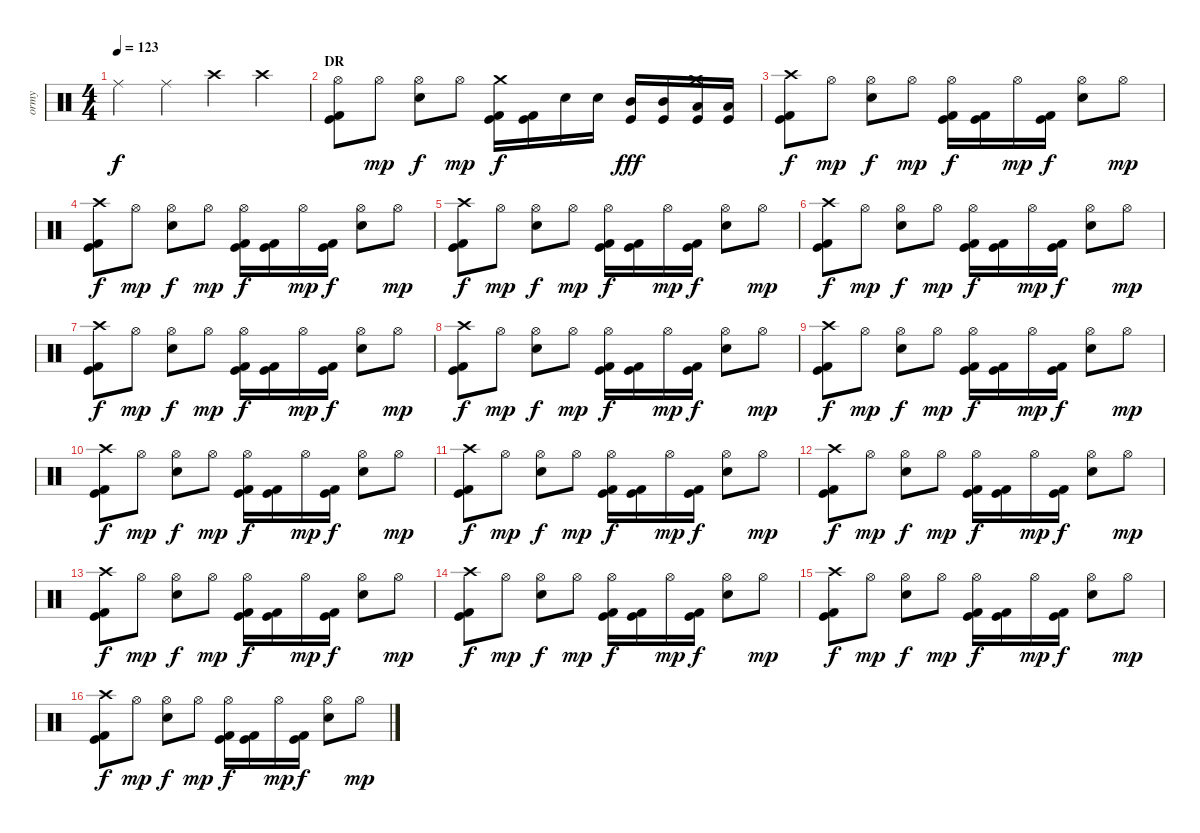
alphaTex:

\track ("ormy" "ormy") {instrument percussion}
\staff {score}
\articulation defaults
\ts (4 4)
\tempo 123
\clef neutral
\ks c "Ride (middle)".4{dy f} "Ride (middle)".4 "Crash high (hit)".4 "Crash high (hit)".4
|
\section ("" "DR")
("Hi-Hat (open)" "Kick (hit) 2" "Kick (hit)").8 "Hi-Hat (open)".8{dy mp} ("Hi-Hat (open)" "Snare (hit) 2").8{dy f} "Hi-Hat (open)".8{dy mp} ("Crash medium (hit)" "Kick (hit) 2" "Kick (hit)").16{dy f} ("Kick (hit) 2" "Kick (hit)").16 "Snare (hit) 2".16 "Snare (hit) 2".16 ("Mid Tom (hit)" "Kick (hit)").16{dy fff} ("Mid Tom (hit)" "Kick (hit)").16 ("Crash medium (hit)" "Low Tom (hit)" "Kick (hit)").16 ("Low Tom (hit)" "Kick (hit)").16 |
("Crash high (hit)" "Kick (hit) 2" "Kick (hit)").8{dy f} "Hi-Hat (open)".8{dy mp} ("Hi-Hat (open)" "Snare (hit) 2").8{dy f} "Hi-Hat (open)".8{dy mp} ("Hi-Hat (open)" "Kick (hit) 2" "Kick (hit)").16{dy f} ("Kick (hit) 2" "Kick (hit)").16 "Hi-Hat (open)".16{dy mp} ("Kick (hit) 2" "Kick (hit)").16{dy f} ("Hi-Hat (open)" "Snare (hit) 2").8 "Hi-Hat (open)".8{dy mp} |
("Crash high (hit)" "Kick (hit) 2" "Kick (hit)").8{dy f} "Hi-Hat (open)".8{dy mp} ("Hi-Hat (open)" "Snare (hit) 2").8{dy f} "Hi-Hat (open)".8{dy mp} ("Hi-Hat (open)" "Kick (hit) 2" "Kick (hit)").16{dy f} ("Kick (hit) 2" "Kick (hit)").16 "Hi-Hat (open)".16{dy mp} ("Kick (hit) 2" "Kick (hit)").16{dy f} ("Hi-Hat (open)" "Snare (hit) 2").8 "Hi-Hat (open)".8{dy mp} |
("Crash high (hit)" "Kick (hit) 2" "Kick (hit)").8{dy f} "Hi-Hat (open)".8{dy mp} ("Hi-Hat (open)" "Snare (hit) 2").8{dy f} "Hi-Hat (open)".8{dy mp} ("Hi-Hat (open)" "Kick (hit) 2" "Kick (hit)").16{dy f} ("Kick (hit) 2" "Kick (hit)").16 "Hi-Hat (open)".16{dy mp} ("Kick (hit) 2" "Kick (hit)").16{dy f} ("Hi-Hat (open)" "Snare (hit) 2").8 "Hi-Hat (open)".8{dy mp} |
("Crash high (hit)" "Kick (hit) 2" "Kick (hit)").8{dy f} "Hi-Hat (open)".8{dy mp} ("Hi-Hat (open)" "Snare (hit) 2").8{dy f} "Hi-Hat (open)".8{dy mp} ("Hi-Hat (open)" "Kick (hit) 2" "Kick (hit)").16{dy f} ("Kick (hit) 2" "Kick (hit)").16 "Hi-Hat (open)".16{dy mp} ("Kick (hit) 2" "Kick (hit)").16{dy f} ("Hi-Hat (open)" "Snare (hit) 2").8 "Hi-Hat (open)".8{dy mp} |
("Crash high (hit)" "Kick (hit) 2" "Kick (hit)").8{dy f} "Hi-Hat (open)".8{dy mp} ("Hi-Hat (open)" "Snare (hit) 2").8{dy f} "Hi-Hat (open)".8{dy mp} ("Hi-Hat (open)" "Kick (hit) 2" "Kick (hit)").16{dy f} ("Kick (hit) 2" "Kick (hit)").16 "Hi-Hat (open)".16{dy mp} ("Kick (hit) 2" "Kick (hit)").16{dy f} ("Hi-Hat (open)" "Snare (hit) 2").8 "Hi-Hat (open)".8{dy mp} |
("Crash high (hit)" "Kick (hit) 2" "Kick (hit)").8{dy f} "Hi-Hat (open)".8{dy mp} ("Hi-Hat (open)" "Snare (hit) 2").8{dy f} "Hi-Hat (open)".8{dy mp} ("Hi-Hat (open)" "Kick (hit) 2" "Kick (hit)").16{dy f} ("Kick (hit) 2" "Kick (hit)").16 "Hi-Hat (open)".16{dy mp} ("Kick (hit) 2" "Kick (hit)").16{dy f} ("Hi-Hat (open)" "Snare (hit) 2").8 "Hi-Hat (open)".8{dy mp} |
("Crash high (hit)" "Kick (hit) 2" "Kick (hit)").8{dy f} "Hi-Hat (open)".8{dy mp} ("Hi-Hat (open)" "Snare (hit) 2").8{dy f} "Hi-Hat (open)".8{dy mp} ("Hi-Hat (open)" "Kick (hit) 2" "Kick (hit)").16{dy f} ("Kick (hit) 2" "Kick (hit)").16 "Hi-Hat (open)".16{dy mp} ("Kick (hit) 2" "Kick (hit)").16{dy f} ("Hi-Hat (open)" "Snare (hit) 2").8 "Hi-Hat (open)".8{dy mp} |
("Crash high (hit)" "Kick (hit) 2" "Kick (hit)").8{dy f} "Hi-Hat (open)".8{dy mp} ("Hi-Hat (open)" "Snare (hit) 2").8{dy f} "Hi-Hat (open)".8{dy mp} ("Hi-Hat (open)" "Kick (hit) 2" "Kick (hit)").16{dy f} ("Kick (hit) 2" "Kick (hit)").16 "Hi-Hat (open)".16{dy mp} ("Kick (hit) 2" "Kick (hit)").16{dy f} ("Hi-Hat (open)" "Snare (hit) 2").8 "Hi-Hat (open)".8{dy mp} |
("Crash high (hit)" "Kick (hit) 2" "Kick (hit)").8{dy f} "Hi-Hat (open)".8{dy mp} ("Hi-Hat (open)" "Snare (hit) 2").8{dy f} "Hi-Hat (open)".8{dy mp} ("Hi-Hat (open)" "Kick (hit) 2" "Kick (hit)").16{dy f} ("Kick (hit) 2" "Kick (hit)").16 "Hi-Hat (open)".16{dy mp} ("Kick (hit) 2" "Kick (hit)").16{dy f} ("Hi-Hat (open)" "Snare (hit) 2").8 "Hi-Hat (open)".8{dy mp} |
("Crash high (hit)" "Kick (hit) 2" "Kick (hit)").8{dy f} "Hi-Hat (open)".8{dy mp} ("Hi-Hat (open)" "Snare (hit) 2").8{dy f} "Hi-Hat (open)".8{dy mp} ("Hi-Hat (open)" "Kick (hit) 2" "Kick (hit)").16{dy f} ("Kick (hit) 2" "Kick (hit)").16 "Hi-Hat (open)".16{dy mp} ("Kick (hit) 2" "Kick (hit)").16{dy f} ("Hi-Hat (open)" "Snare (hit) 2").8 "Hi-Hat (open)".8{dy mp} |
("Crash high (hit)" "Kick (hit) 2" "Kick (hit)").8{dy f} "Hi-Hat (open)".8{dy mp} ("Hi-Hat (open)" "Snare (hit) 2").8{dy f} "Hi-Hat (open)".8{dy mp} ("Hi-Hat (open)" "Kick (hit) 2" "Kick (hit)").16{dy f} ("Kick (hit) 2" "Kick (hit)").16 "Hi-Hat (open)".16{dy mp} ("Kick (hit) 2" "Kick (hit)").16{dy f} ("Hi-Hat (open)" "Snare (hit) 2").8 "Hi-Hat (open)".8{dy mp} |
("Crash high (hit)" "Kick (hit) 2" "Kick (hit)").8{dy f} "Hi-Hat (open)".8{dy mp} ("Hi-Hat (open)" "Snare (hit) 2").8{dy f} "Hi-Hat (open)".8{dy mp} ("Hi-Hat (open)" "Kick (hit) 2" "Kick (hit)").16{dy f} ("Kick (hit) 2" "Kick (hit)").16 "Hi-Hat (open)".16{dy mp} ("Kick (hit) 2" "Kick (hit)").16{dy f} ("Hi-Hat (open)" "Snare (hit) 2").8 "Hi-Hat (open)".8{dy mp} |
("Crash high (hit)" "Kick (hit) 2" "Kick (hit)").8{dy f} "Hi-Hat (open)".8{dy mp} ("Hi-Hat (open)" "Snare (hit) 2").8{dy f} "Hi-Hat (open)".8{dy mp} ("Hi-Hat (open)" "Kick (hit) 2" "Kick (hit)").16{dy f} ("Kick (hit) 2" "Kick (hit)").16 "Hi-Hat (open)".16{dy mp} ("Kick (hit) 2" "Kick (hit)").16{dy f} ("Hi-Hat (open)" "Snare (hit) 2").8 "Hi-Hat (open)".8{dy mp} |
("Crash high (hit)" "Kick (hit) 2" "Kick (hit)").8{dy f} "Hi-Hat (open)".8{dy mp} ("Hi-Hat (open)" "Snare (hit) 2").8{dy f} "Hi-Hat (open)".8{dy mp} ("Hi-Hat (open)" "Kick (hit) 2" "Kick (hit)").16{dy f} ("Kick (hit) 2" "Kick (hit)").16 "Hi-Hat (open)".16{dy mp} ("Kick (hit) 2" "Kick (hit)").16{dy f} ("Hi-Hat (open)" "Snare (hit) 2").8 "Hi-Hat (open)".8{dy mp}
